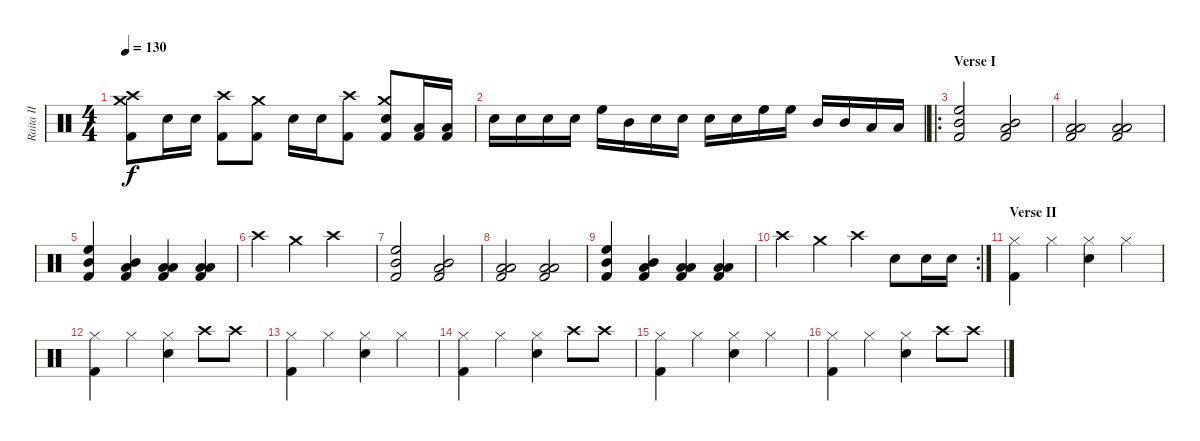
\track ("Raita II" "Raita II") {instrument percussion}
\staff {score}
\articulation defaults
\ts (4 4)
\tempo 130
\clef neutral
\ks c
("Kick (hit) 2" "Crash high (hit)" "Crash medium (hit)").8{dy f} "Snare (hit) 2".16 "Snare (hit) 2".16 ("Kick (hit) 2" "Crash high (hit)").8 ("Kick (hit) 2" "Crash medium (hit)").8 "Snare (hit) 2".16 "Snare (hit) 2".16 ("Kick (hit) 2" "Crash high (hit)").8 ("Kick (hit) 2" "Crash medium (hit)" "Snare (hit) 2").8 ("Kick (hit) 2" "Low Floor Tom (hit)").16 ("Kick (hit) 2" "Low Floor Tom (hit)").16 |
"Snare (hit) 2".16 "Snare (hit) 2".16 "Snare (hit) 2".16 "Snare (hit) 2".16 "High Floor Tom (hit)".16 "Mid Tom (hit)".16 "Snare (hit) 2".16 "Snare (hit) 2".16 "Snare (hit) 2".16 "Snare (hit) 2".16 "High Floor Tom (hit)".16 "High Floor Tom (hit)".16 "Mid Tom (hit)".16 "Mid Tom (hit)".16 "Low Tom (hit)".16 "Low Floor Tom (hit)".16 |
\ro
\section ("" "Verse I")
("Mid Tom (hit)" "High Floor Tom (hit)" "Kick (hit) 2").2 ("Low Tom (hit)" "Mid Tom (hit)" "Kick (hit) 2").2 |
("Low Floor Tom (hit)" "Low Tom (hit)" "Kick (hit) 2").2 ("Low Floor Tom (hit)" "Low Floor Tom (hit)" "Kick (hit) 2").2 |
("Mid Tom (hit)" "High Floor Tom (hit)" "Kick (hit) 2").4 ("Low Tom (hit)" "Mid Tom (hit)" "Kick (hit) 2").4 ("Low Floor Tom (hit)" "Low Tom (hit)" "Kick (hit) 2").4 ("Low Floor Tom (hit)" "Low Floor Tom (hit)" "Kick (hit) 2").4 |
"Crash high (hit)".4 "Crash medium (hit)".4 "Crash high (hit)".2 |
("Mid Tom (hit)" "High Floor Tom (hit)" "Kick (hit) 2").2 ("Low Tom (hit)" "Mid Tom (hit)" "Kick (hit) 2").2 |
("Low Floor Tom (hit)" "Low Tom (hit)" "Kick (hit) 2").2 ("Low Floor Tom (hit)" "Low Floor Tom (hit)" "Kick (hit) 2").2 |
("Mid Tom (hit)" "High Floor Tom (hit)" "Kick (hit) 2").4 ("Low Tom (hit)" "Mid Tom (hit)" "Kick (hit) 2").4 ("Low Floor Tom (hit)" "Low Tom (hit)" "Kick (hit) 2").4 ("Low Floor Tom (hit)" "Low Floor Tom (hit)" "Kick (hit) 2").4 |
\rc 2 "Crash high (hit)".4 "Crash medium (hit)".4 "Crash high (hit)".4 "Snare (hit) 2".8 "Snare (hit) 2".16 "Snare (hit) 2".16
|
\section ("" "Verse II")
("Kick (hit) 2" "Hi-Hat (closed)").4 "Hi-Hat (closed)".4 ("Hi-Hat (closed)" "Snare (hit) 2").4 "Hi-Hat (closed)".4 |
("Kick (hit) 2" "Hi-Hat (closed)").4 "Hi-Hat (closed)".4 ("Hi-Hat (closed)" "Snare (hit) 2").4 "Crash high (hit)".8 "Crash high (hit)".8 |
("Kick (hit) 2" "Hi-Hat (closed)").4 "Hi-Hat (closed)".4 ("Hi-Hat (closed)" "Snare (hit) 2").4 "Hi-Hat (closed)".4 |
("Kick (hit) 2" "Hi-Hat (closed)").4 "Hi-Hat (closed)".4 ("Hi-Hat (closed)" "Snare (hit) 2").4 "Crash high (hit)".8 "Crash high (hit)".8 |
("Kick (hit) 2" "Hi-Hat (closed)").4 "Hi-Hat (closed)".4 ("Hi-Hat (closed)" "Snare (hit) 2").4 "Hi-Hat (closed)".4 |
("Kick (hit) 2" "Hi-Hat (closed)").4 "Hi-Hat (closed)".4 ("Hi-Hat (closed)" "Snare (hit) 2").4 "Crash high (hit)".8 "Crash high (hit)".8
